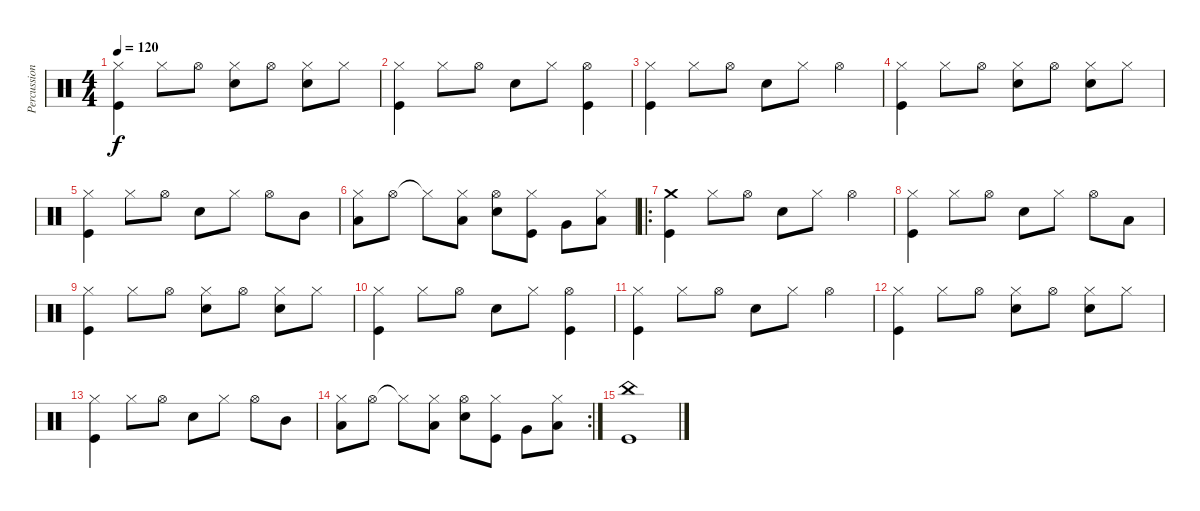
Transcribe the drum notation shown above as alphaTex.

\track ("Percussions" "Percussion") {instrument percussion}
\staff {score}
\articulation defaults
\ts (4 4)
\tempo 120
\clef neutral
\ks c
("Hi-Hat (closed)" "Kick (hit)").4{dy f} "Hi-Hat (closed)".8 "Hi-Hat (open)".8 ("Hi-Hat (closed)" "Electric Snare (hit)").8 "Hi-Hat (open)".8 ("Hi-Hat (closed)" "Electric Snare (hit)").8 "Hi-Hat (closed)".8 |
("Hi-Hat (closed)" "Kick (hit)").4 "Hi-Hat (closed)".8 "Hi-Hat (open)".8 "Electric Snare (hit)".8 "Hi-Hat (closed)".8 ("Hi-Hat (open)" "Kick (hit)").4 |
("Hi-Hat (closed)" "Kick (hit)").4 "Hi-Hat (closed)".8 "Hi-Hat (open)".8 "Electric Snare (hit)".8 "Hi-Hat (closed)".8 "Hi-Hat (open)".4 |
("Hi-Hat (closed)" "Kick (hit)").4 "Hi-Hat (closed)".8 "Hi-Hat (open)".8 ("Hi-Hat (closed)" "Electric Snare (hit)").8 "Hi-Hat (open)".8 ("Hi-Hat (closed)" "Electric Snare (hit)").8 "Hi-Hat (closed)".8 |
("Hi-Hat (closed)" "Kick (hit)").4 "Hi-Hat (closed)".8 "Hi-Hat (open)".8 "Electric Snare (hit)".8 "Hi-Hat (closed)".8 "Hi-Hat (open)".8 "Mid Tom (hit)".8 |
("Hi-Hat (closed)" "Low Tom (hit)").8 "Hi-Hat (open)".8 "Hi-Hat (closed)"{t}.8 ("Hi-Hat (closed)" "Low Tom (hit)").8 ("Hi-Hat (open)" "Electric Snare (hit)").8 ("Hi-Hat (closed)" "Kick (hit)").8 "Very Low Tom (hit)".8 ("Hi-Hat (closed)" "Low Floor Tom (hit)").8 |
\ro
("Crash medium (hit)" "Kick (hit)").4 "Hi-Hat (closed)".8 "Hi-Hat (open)".8 "Electric Snare (hit)".8 "Hi-Hat (closed)".8 "Hi-Hat (open)".4 |
("Hi-Hat (closed)" "Kick (hit)").4 "Hi-Hat (closed)".8 "Hi-Hat (open)".8 "Electric Snare (hit)".8 "Hi-Hat (closed)".8 "Hi-Hat (open)".8 "Low Floor Tom (hit)".8 |
("Hi-Hat (closed)" "Kick (hit)").4 "Hi-Hat (closed)".8 "Hi-Hat (open)".8 ("Hi-Hat (closed)" "Electric Snare (hit)").8 "Hi-Hat (open)".8 ("Hi-Hat (closed)" "Electric Snare (hit)").8 "Hi-Hat (closed)".8 |
("Hi-Hat (closed)" "Kick (hit)").4 "Hi-Hat (closed)".8 "Hi-Hat (open)".8 "Electric Snare (hit)".8 "Hi-Hat (closed)".8 ("Hi-Hat (open)" "Kick (hit)").4 |
("Hi-Hat (closed)" "Kick (hit)").4 "Hi-Hat (closed)".8 "Hi-Hat (open)".8 "Electric Snare (hit)".8 "Hi-Hat (closed)".8 "Hi-Hat (open)".4 |
("Hi-Hat (closed)" "Kick (hit)").4 "Hi-Hat (closed)".8 "Hi-Hat (open)".8 ("Hi-Hat (closed)" "Electric Snare (hit)").8 "Hi-Hat (open)".8 ("Hi-Hat (closed)" "Electric Snare (hit)").8 "Hi-Hat (closed)".8 |
("Hi-Hat (closed)" "Kick (hit)").4 "Hi-Hat (closed)".8 "Hi-Hat (open)".8 "Electric Snare (hit)".8 "Hi-Hat (closed)".8 "Hi-Hat (open)".8 "Mid Tom (hit)".8 |
\rc 2
("Hi-Hat (closed)" "Low Tom (hit)").8 "Hi-Hat (open)".8 "Hi-Hat (closed)"{t}.8 ("Hi-Hat (closed)" "Low Tom (hit)").8 ("Hi-Hat (open)" "Electric Snare (hit)").8 ("Hi-Hat (closed)" "Kick (hit)").8 "Very Low Tom (hit)".8 ("Hi-Hat (closed)" "Low Floor Tom (hit)").8 |
("China (hit)" "Kick (hit)").1
